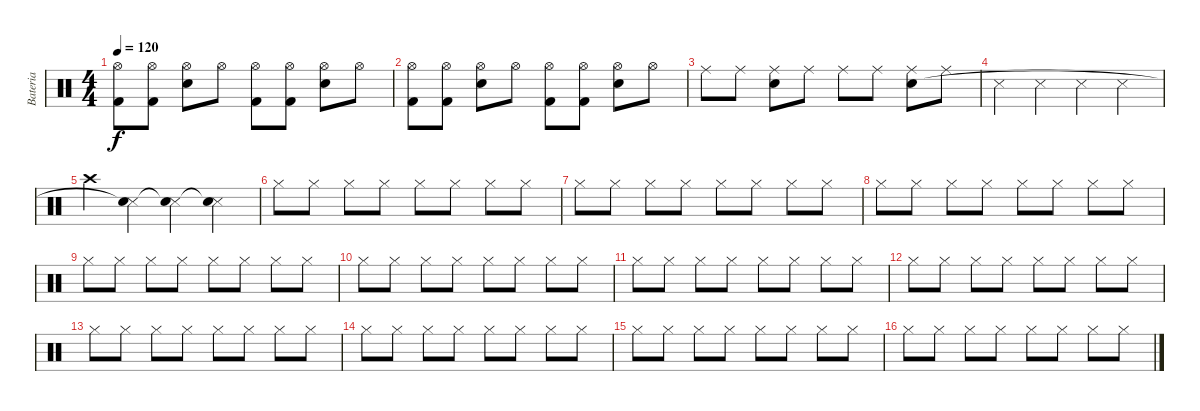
\track ("Bateria" "Bateria") {instrument percussion}
\staff {score}
\articulation defaults
\ts (4 4)
\tempo 120
\clef neutral
\ks c
("Hi-Hat (open)" "Kick (hit) 2").8{dy f} ("Hi-Hat (open)" "Kick (hit) 2").8 ("Hi-Hat (open)" "Electric Snare (hit)").8 "Hi-Hat (open)".8 ("Hi-Hat (open)" "Kick (hit) 2").8 ("Hi-Hat (open)" "Kick (hit) 2").8 ("Hi-Hat (open)" "Electric Snare (hit)").8 "Hi-Hat (open)".8 |
("Hi-Hat (open)" "Kick (hit) 2").8 ("Hi-Hat (open)" "Kick (hit) 2").8 ("Hi-Hat (open)" "Electric Snare (hit)").8 "Hi-Hat (open)".8 ("Hi-Hat (open)" "Kick (hit) 2").8 ("Hi-Hat (open)" "Kick (hit) 2").8 ("Hi-Hat (open)" "Electric Snare (hit)").8 "Hi-Hat (open)".8 |
"Ride (middle)".8 "Ride (middle)".8 ("Ride (middle)" "Electric Snare (hit)").8 "Ride (middle)".8 "Ride (middle)".8 "Ride (middle)".8 ("Ride (middle)" "Electric Snare (hit)").8 "Ride (middle)".8 |
"Snare (side stick) 3".4 "Snare (side stick) 3".4 "Snare (side stick) 3".4 "Snare (side stick) 3".4 |
"Crash high (hit)".4 ("Snare (side stick) 3" "Snare (hit)"{t}).4 ("Snare (side stick) 3" "Snare (hit)"{t}).4 ("Snare (side stick) 3" "Snare (hit)"{t}).4 |
"Hi-Hat (closed)".8 "Hi-Hat (closed)".8 "Hi-Hat (closed)".8 "Hi-Hat (closed)".8 "Hi-Hat (closed)".8 "Hi-Hat (closed)".8 "Hi-Hat (closed)".8 "Hi-Hat (closed)".8 |
"Hi-Hat (closed)".8 "Hi-Hat (closed)".8 "Hi-Hat (closed)".8 "Hi-Hat (closed)".8 "Hi-Hat (closed)".8 "Hi-Hat (closed)".8 "Hi-Hat (closed)".8 "Hi-Hat (closed)".8 |
"Hi-Hat (closed)".8 "Hi-Hat (closed)".8 "Hi-Hat (closed)".8 "Hi-Hat (closed)".8 "Hi-Hat (closed)".8 "Hi-Hat (closed)".8 "Hi-Hat (closed)".8 "Hi-Hat (closed)".8 |
"Hi-Hat (closed)".8 "Hi-Hat (closed)".8 "Hi-Hat (closed)".8 "Hi-Hat (closed)".8 "Hi-Hat (closed)".8 "Hi-Hat (closed)".8 "Hi-Hat (closed)".8 "Hi-Hat (closed)".8 |
"Hi-Hat (closed)".8 "Hi-Hat (closed)".8 "Hi-Hat (closed)".8 "Hi-Hat (closed)".8 "Hi-Hat (closed)".8 "Hi-Hat (closed)".8 "Hi-Hat (closed)".8 "Hi-Hat (closed)".8 |
"Hi-Hat (closed)".8 "Hi-Hat (closed)".8 "Hi-Hat (closed)".8 "Hi-Hat (closed)".8 "Hi-Hat (closed)".8 "Hi-Hat (closed)".8 "Hi-Hat (closed)".8 "Hi-Hat (closed)".8 |
"Hi-Hat (closed)".8 "Hi-Hat (closed)".8 "Hi-Hat (closed)".8 "Hi-Hat (closed)".8 "Hi-Hat (closed)".8 "Hi-Hat (closed)".8 "Hi-Hat (closed)".8 "Hi-Hat (closed)".8 |
"Hi-Hat (closed)".8 "Hi-Hat (closed)".8 "Hi-Hat (closed)".8 "Hi-Hat (closed)".8 "Hi-Hat (closed)".8 "Hi-Hat (closed)".8 "Hi-Hat (closed)".8 "Hi-Hat (closed)".8 |
"Hi-Hat (closed)".8 "Hi-Hat (closed)".8 "Hi-Hat (closed)".8 "Hi-Hat (closed)".8 "Hi-Hat (closed)".8 "Hi-Hat (closed)".8 "Hi-Hat (closed)".8 "Hi-Hat (closed)".8 |
"Hi-Hat (closed)".8 "Hi-Hat (closed)".8 "Hi-Hat (closed)".8 "Hi-Hat (closed)".8 "Hi-Hat (closed)".8 "Hi-Hat (closed)".8 "Hi-Hat (closed)".8 "Hi-Hat (closed)".8 |
"Hi-Hat (closed)".8 "Hi-Hat (closed)".8 "Hi-Hat (closed)".8 "Hi-Hat (closed)".8 "Hi-Hat (closed)".8 "Hi-Hat (closed)".8 "Hi-Hat (closed)".8 "Hi-Hat (closed)".8
